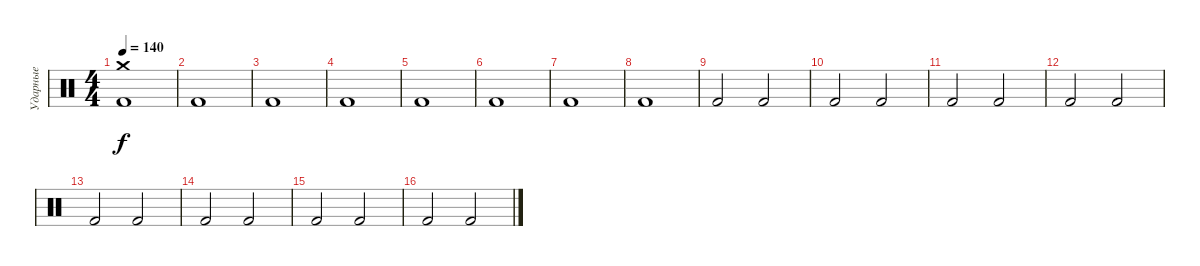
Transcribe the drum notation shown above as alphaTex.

\track ("Ударные" "Ударные") {instrument percussion}
\staff {score}
\articulation defaults
\ts (4 4)
\tempo 140
\clef neutral
\ks c
("Crash medium (hit)" "Kick (hit) 2").1{dy f} |
"Kick (hit) 2".1 |
"Kick (hit) 2".1 |
"Kick (hit) 2".1 |
"Kick (hit) 2".1 |
"Kick (hit) 2".1 |
"Kick (hit) 2".1 |
"Kick (hit) 2".1 |
"Kick (hit) 2".2 "Kick (hit) 2".2 |
"Kick (hit) 2".2 "Kick (hit) 2".2 |
"Kick (hit) 2".2 "Kick (hit) 2".2 |
"Kick (hit) 2".2 "Kick (hit) 2".2 |
"Kick (hit) 2".2 "Kick (hit) 2".2 |
"Kick (hit) 2".2 "Kick (hit) 2".2 |
"Kick (hit) 2".2 "Kick (hit) 2".2 |
"Kick (hit) 2".2 "Kick (hit) 2".2
